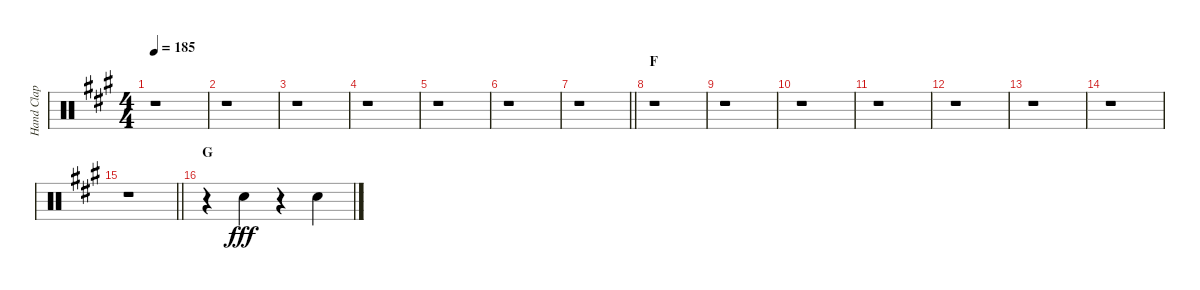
\track ("Hand Clap" "Hand Clap") {instrument percussion}
\staff {score}
\articulation defaults
\ts (4 4)
\tempo 185
\clef neutral
\ks a
r.1{dy fff} |
r.1 |
r.1 |
r.1 |
r.1 |
r.1 |
\barLineRight lightlight
r.1 |
\section ("" "F")
r.1 |
r.1 |
r.1 |
r.1 |
r.1 |
r.1 |
r.1 |
\barLineRight lightlight
r.1 |
\section ("" "G")
r.4 "Hand Clap (hit)".4 r.4 "Hand Clap (hit)".4
